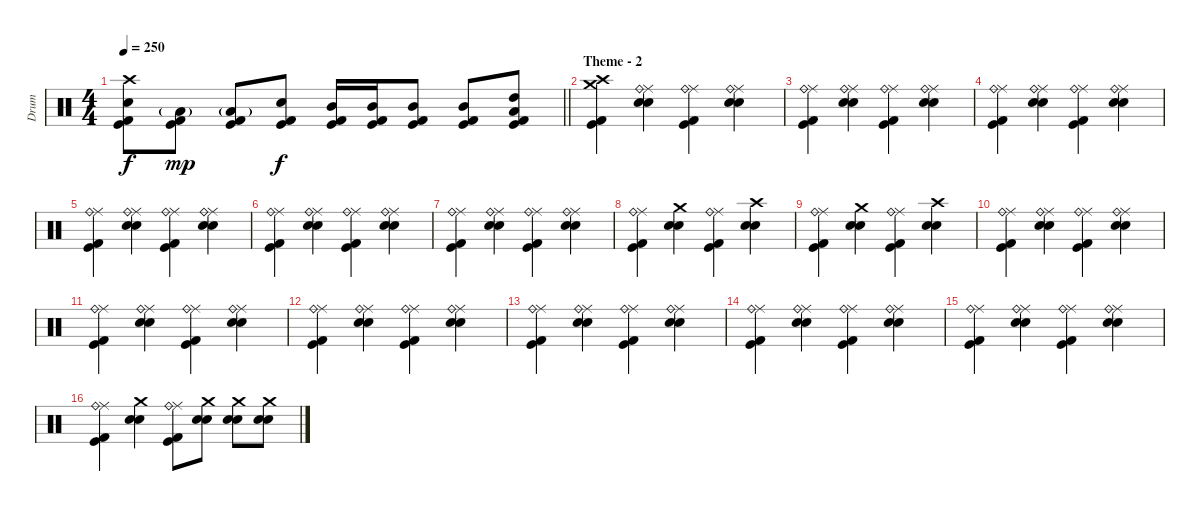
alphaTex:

\track ("Drum" "Drum") {instrument percussion}
\staff {score}
\articulation defaults
\ts (4 4)
\tempo 250
\clef neutral
\barLineRight lightlight
\ks c
("Crash high (hit)" "Electric Snare (hit)" "Kick (hit) 2" "Kick (hit)").8{dy f} ("Low Floor Tom (hit)"{g} "Kick (hit) 2" "Kick (hit)").8{dy mp} ("Low Floor Tom (hit)"{g} "Kick (hit) 2" "Kick (hit)").8 ("Electric Snare (hit)" "Kick (hit) 2" "Kick (hit)").8{dy f} ("Mid Tom (hit)" "Kick (hit) 2" "Kick (hit)").16 ("Mid Tom (hit)" "Kick (hit) 2" "Kick (hit)").16 ("Mid Tom (hit)" "Kick (hit) 2" "Kick (hit)").8 ("Mid Tom (hit)" "Kick (hit) 2" "Kick (hit)").8 ("High Tom (hit)" "Low Tom (hit)" "Kick (hit) 2" "Kick (hit)").8 |
\section ("" "Theme - 2")
("Crash high (hit)" "Crash medium (hit)" "Kick (hit) 2" "Kick (hit)").4 ("Ride (middle)" "Ride (bell)" "Electric Snare (hit)" "Snare (hit) 2").4 ("Ride (middle)" "Ride (bell)" "Kick (hit) 2" "Kick (hit)").4 ("Ride (middle)" "Ride (bell)" "Electric Snare (hit)" "Snare (hit) 2").4 |
("Ride (middle)" "Ride (bell)" "Kick (hit) 2" "Kick (hit)").4 ("Ride (middle)" "Ride (bell)" "Electric Snare (hit)" "Snare (hit) 2").4 ("Ride (middle)" "Ride (bell)" "Kick (hit) 2" "Kick (hit)").4 ("Ride (middle)" "Ride (bell)" "Electric Snare (hit)" "Snare (hit) 2").4 |
("Ride (middle)" "Ride (bell)" "Kick (hit) 2" "Kick (hit)").4 ("Ride (middle)" "Ride (bell)" "Electric Snare (hit)" "Snare (hit) 2").4 ("Ride (middle)" "Ride (bell)" "Kick (hit) 2" "Kick (hit)").4 ("Ride (middle)" "Ride (bell)" "Electric Snare (hit)" "Snare (hit) 2").4 |
("Ride (middle)" "Ride (bell)" "Kick (hit) 2" "Kick (hit)").4 ("Ride (middle)" "Ride (bell)" "Electric Snare (hit)" "Snare (hit) 2").4 ("Ride (middle)" "Ride (bell)" "Kick (hit) 2" "Kick (hit)").4 ("Ride (middle)" "Ride (bell)" "Electric Snare (hit)" "Snare (hit) 2").4 |
("Ride (middle)" "Ride (bell)" "Kick (hit) 2" "Kick (hit)").4 ("Ride (middle)" "Ride (bell)" "Electric Snare (hit)" "Snare (hit) 2").4 ("Ride (middle)" "Ride (bell)" "Kick (hit) 2" "Kick (hit)").4 ("Ride (middle)" "Ride (bell)" "Electric Snare (hit)" "Snare (hit) 2").4 |
("Ride (middle)" "Ride (bell)" "Kick (hit) 2" "Kick (hit)").4 ("Ride (middle)" "Ride (bell)" "Electric Snare (hit)" "Snare (hit) 2").4 ("Ride (middle)" "Ride (bell)" "Kick (hit) 2" "Kick (hit)").4 ("Ride (middle)" "Ride (bell)" "Electric Snare (hit)" "Snare (hit) 2").4 |
("Ride (middle)" "Ride (bell)" "Kick (hit) 2" "Kick (hit)").4 ("Crash medium (hit)" "Electric Snare (hit)" "Snare (hit) 2").4 ("Ride (middle)" "Ride (bell)" "Kick (hit) 2" "Kick (hit)").4 ("Crash high (hit)" "Electric Snare (hit)" "Snare (hit) 2").4 |
("Ride (middle)" "Ride (bell)" "Kick (hit) 2" "Kick (hit)").4 ("Crash medium (hit)" "Electric Snare (hit)" "Snare (hit) 2").4 ("Ride (middle)" "Ride (bell)" "Kick (hit) 2" "Kick (hit)").4 ("Crash high (hit)" "Electric Snare (hit)" "Snare (hit) 2").4 |
("Ride (middle)" "Ride (bell)" "Kick (hit) 2" "Kick (hit)").4 ("Ride (middle)" "Ride (bell)" "Electric Snare (hit)" "Snare (hit) 2").4 ("Ride (middle)" "Ride (bell)" "Kick (hit) 2" "Kick (hit)").4 ("Ride (middle)" "Ride (bell)" "Electric Snare (hit)" "Snare (hit) 2").4 |
("Ride (middle)" "Ride (bell)" "Kick (hit) 2" "Kick (hit)").4 ("Ride (middle)" "Ride (bell)" "Electric Snare (hit)" "Snare (hit) 2").4 ("Ride (middle)" "Ride (bell)" "Kick (hit) 2" "Kick (hit)").4 ("Ride (middle)" "Ride (bell)" "Electric Snare (hit)" "Snare (hit) 2").4 |
("Ride (middle)" "Ride (bell)" "Kick (hit) 2" "Kick (hit)").4 ("Ride (middle)" "Ride (bell)" "Electric Snare (hit)" "Snare (hit) 2").4 ("Ride (middle)" "Ride (bell)" "Kick (hit) 2" "Kick (hit)").4 ("Ride (middle)" "Ride (bell)" "Electric Snare (hit)" "Snare (hit) 2").4 |
("Ride (middle)" "Ride (bell)" "Kick (hit) 2" "Kick (hit)").4 ("Ride (middle)" "Ride (bell)" "Electric Snare (hit)" "Snare (hit) 2").4 ("Ride (middle)" "Ride (bell)" "Kick (hit) 2" "Kick (hit)").4 ("Ride (middle)" "Ride (bell)" "Electric Snare (hit)" "Snare (hit) 2").4 |
("Ride (middle)" "Ride (bell)" "Kick (hit) 2" "Kick (hit)").4 ("Ride (middle)" "Ride (bell)" "Electric Snare (hit)" "Snare (hit) 2").4 ("Ride (middle)" "Ride (bell)" "Kick (hit) 2" "Kick (hit)").4 ("Ride (middle)" "Ride (bell)" "Electric Snare (hit)" "Snare (hit) 2").4 |
("Ride (middle)" "Ride (bell)" "Kick (hit) 2" "Kick (hit)").4 ("Ride (middle)" "Ride (bell)" "Electric Snare (hit)" "Snare (hit) 2").4 ("Ride (middle)" "Ride (bell)" "Kick (hit) 2" "Kick (hit)").4 ("Ride (middle)" "Ride (bell)" "Electric Snare (hit)" "Snare (hit) 2").4 |
("Ride (middle)" "Ride (bell)" "Kick (hit) 2" "Kick (hit)").4 ("Crash medium (hit)" "Electric Snare (hit)" "Snare (hit) 2").4 ("Ride (middle)" "Ride (bell)" "Kick (hit) 2" "Kick (hit)").8 ("Crash medium (hit)" "Electric Snare (hit)" "Snare (hit) 2").8 ("Crash medium (hit)" "Electric Snare (hit)" "Snare (hit) 2").8 ("Crash medium (hit)" "Electric Snare (hit)" "Snare (hit) 2").8
